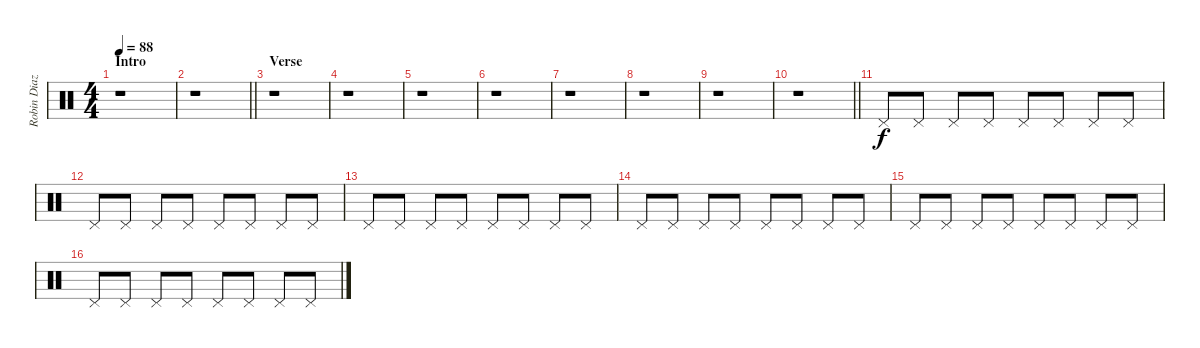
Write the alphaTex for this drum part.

\track ("Robin Diaz (Drums)" "Robin Diaz") {instrument percussion}
\staff {score}
\articulation defaults
\ts (4 4)
\section ("" "Intro")
\tempo 88
\clef neutral
\ks c
r.1{dy f} |
\barLineRight lightlight
r.1 |
\section ("" "Verse")
r.1 |
r.1 |
r.1 |
r.1 |
r.1 |
r.1 |
r.1 |
\barLineRight lightlight
r.1 |
"Pedal Hi-Hat (hit)".8 "Pedal Hi-Hat (hit)".8 "Pedal Hi-Hat (hit)".8 "Pedal Hi-Hat (hit)".8 "Pedal Hi-Hat (hit)".8 "Pedal Hi-Hat (hit)".8 "Pedal Hi-Hat (hit)".8 "Pedal Hi-Hat (hit)".8 |
"Pedal Hi-Hat (hit)".8 "Pedal Hi-Hat (hit)".8 "Pedal Hi-Hat (hit)".8 "Pedal Hi-Hat (hit)".8 "Pedal Hi-Hat (hit)".8 "Pedal Hi-Hat (hit)".8 "Pedal Hi-Hat (hit)".8 "Pedal Hi-Hat (hit)".8 |
"Pedal Hi-Hat (hit)".8 "Pedal Hi-Hat (hit)".8 "Pedal Hi-Hat (hit)".8 "Pedal Hi-Hat (hit)".8 "Pedal Hi-Hat (hit)".8 "Pedal Hi-Hat (hit)".8 "Pedal Hi-Hat (hit)".8 "Pedal Hi-Hat (hit)".8 |
"Pedal Hi-Hat (hit)".8 "Pedal Hi-Hat (hit)".8 "Pedal Hi-Hat (hit)".8 "Pedal Hi-Hat (hit)".8 "Pedal Hi-Hat (hit)".8 "Pedal Hi-Hat (hit)".8 "Pedal Hi-Hat (hit)".8 "Pedal Hi-Hat (hit)".8 |
"Pedal Hi-Hat (hit)".8 "Pedal Hi-Hat (hit)".8 "Pedal Hi-Hat (hit)".8 "Pedal Hi-Hat (hit)".8 "Pedal Hi-Hat (hit)".8 "Pedal Hi-Hat (hit)".8 "Pedal Hi-Hat (hit)".8 "Pedal Hi-Hat (hit)".8 |
"Pedal Hi-Hat (hit)".8 "Pedal Hi-Hat (hit)".8 "Pedal Hi-Hat (hit)".8 "Pedal Hi-Hat (hit)".8 "Pedal Hi-Hat (hit)".8 "Pedal Hi-Hat (hit)".8 "Pedal Hi-Hat (hit)".8 "Pedal Hi-Hat (hit)".8
